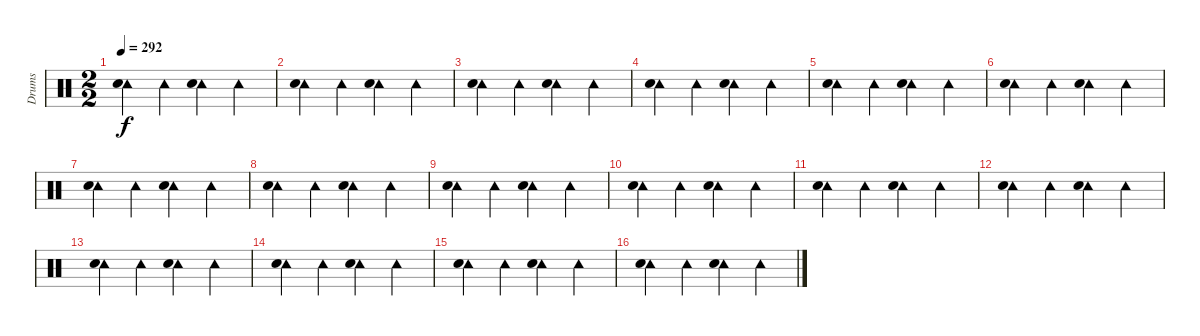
\track ("Drums" "Drums") {instrument percussion}
\staff {score}
\articulation defaults
\ts (2 2)
\tempo 292
\clef neutral
\ks c
("Tambourine (hit)" "Electric Snare (hit)").4{dy f} "Tambourine (hit)".4 ("Tambourine (hit)" "Electric Snare (hit)").4 "Tambourine (hit)".4 |
("Tambourine (hit)" "Electric Snare (hit)").4 "Tambourine (hit)".4 ("Tambourine (hit)" "Electric Snare (hit)").4 "Tambourine (hit)".4 |
("Tambourine (hit)" "Electric Snare (hit)").4 "Tambourine (hit)".4 ("Tambourine (hit)" "Electric Snare (hit)").4 "Tambourine (hit)".4 |
("Tambourine (hit)" "Electric Snare (hit)").4 "Tambourine (hit)".4 ("Tambourine (hit)" "Electric Snare (hit)").4 "Tambourine (hit)".4 |
("Tambourine (hit)" "Electric Snare (hit)").4 "Tambourine (hit)".4 ("Tambourine (hit)" "Electric Snare (hit)").4 "Tambourine (hit)".4 |
("Tambourine (hit)" "Electric Snare (hit)").4 "Tambourine (hit)".4 ("Tambourine (hit)" "Electric Snare (hit)").4 "Tambourine (hit)".4 |
("Tambourine (hit)" "Electric Snare (hit)").4 "Tambourine (hit)".4 ("Tambourine (hit)" "Electric Snare (hit)").4 "Tambourine (hit)".4 |
("Tambourine (hit)" "Electric Snare (hit)").4 "Tambourine (hit)".4 ("Tambourine (hit)" "Electric Snare (hit)").4 "Tambourine (hit)".4 |
("Tambourine (hit)" "Electric Snare (hit)").4 "Tambourine (hit)".4 ("Tambourine (hit)" "Electric Snare (hit)").4 "Tambourine (hit)".4 |
("Tambourine (hit)" "Electric Snare (hit)").4 "Tambourine (hit)".4 ("Tambourine (hit)" "Electric Snare (hit)").4 "Tambourine (hit)".4 |
("Tambourine (hit)" "Electric Snare (hit)").4 "Tambourine (hit)".4 ("Tambourine (hit)" "Electric Snare (hit)").4 "Tambourine (hit)".4 |
("Tambourine (hit)" "Electric Snare (hit)").4 "Tambourine (hit)".4 ("Tambourine (hit)" "Electric Snare (hit)").4 "Tambourine (hit)".4 |
("Tambourine (hit)" "Electric Snare (hit)").4 "Tambourine (hit)".4 ("Tambourine (hit)" "Electric Snare (hit)").4 "Tambourine (hit)".4 |
("Tambourine (hit)" "Electric Snare (hit)").4 "Tambourine (hit)".4 ("Tambourine (hit)" "Electric Snare (hit)").4 "Tambourine (hit)".4 |
("Tambourine (hit)" "Electric Snare (hit)").4 "Tambourine (hit)".4 ("Tambourine (hit)" "Electric Snare (hit)").4 "Tambourine (hit)".4 |
("Tambourine (hit)" "Electric Snare (hit)").4 "Tambourine (hit)".4 ("Tambourine (hit)" "Electric Snare (hit)").4 "Tambourine (hit)".4
